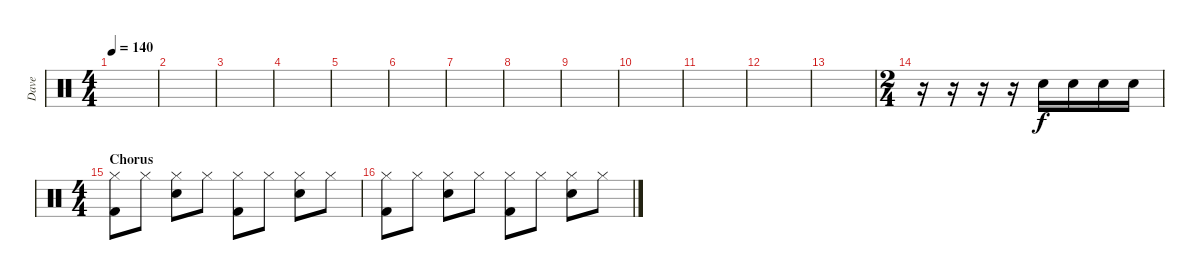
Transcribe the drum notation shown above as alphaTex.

\track ("Dave" "Dave") {instrument percussion}
\staff {score}
\articulation defaults
\ts (4 4)
\tempo 140
\clef neutral
\ks c
|
|
|
|
|
|
|
|
|
|
|
|
|
\ts (2 4)
r.16 r.16 r.16 r.16 "Snare (hit) 2".16 "Snare (hit) 2".16 "Snare (hit) 2".16 "Snare (hit) 2".16 |
\ts (4 4)
\section ("" "Chorus")
("Hi-Hat (closed)" "Kick (hit) 2").8 "Hi-Hat (closed)".8 ("Hi-Hat (closed)" "Electric Snare (hit)").8 "Hi-Hat (closed)".8 ("Hi-Hat (closed)" "Kick (hit) 2").8 "Hi-Hat (closed)".8 ("Hi-Hat (closed)" "Electric Snare (hit)").8 "Hi-Hat (closed)".8 |
("Hi-Hat (closed)" "Kick (hit) 2").8 "Hi-Hat (closed)".8 ("Hi-Hat (closed)" "Electric Snare (hit)").8 "Hi-Hat (closed)".8 ("Hi-Hat (closed)" "Kick (hit) 2").8 "Hi-Hat (closed)".8 ("Hi-Hat (closed)" "Electric Snare (hit)").8 "Hi-Hat (closed)".8
